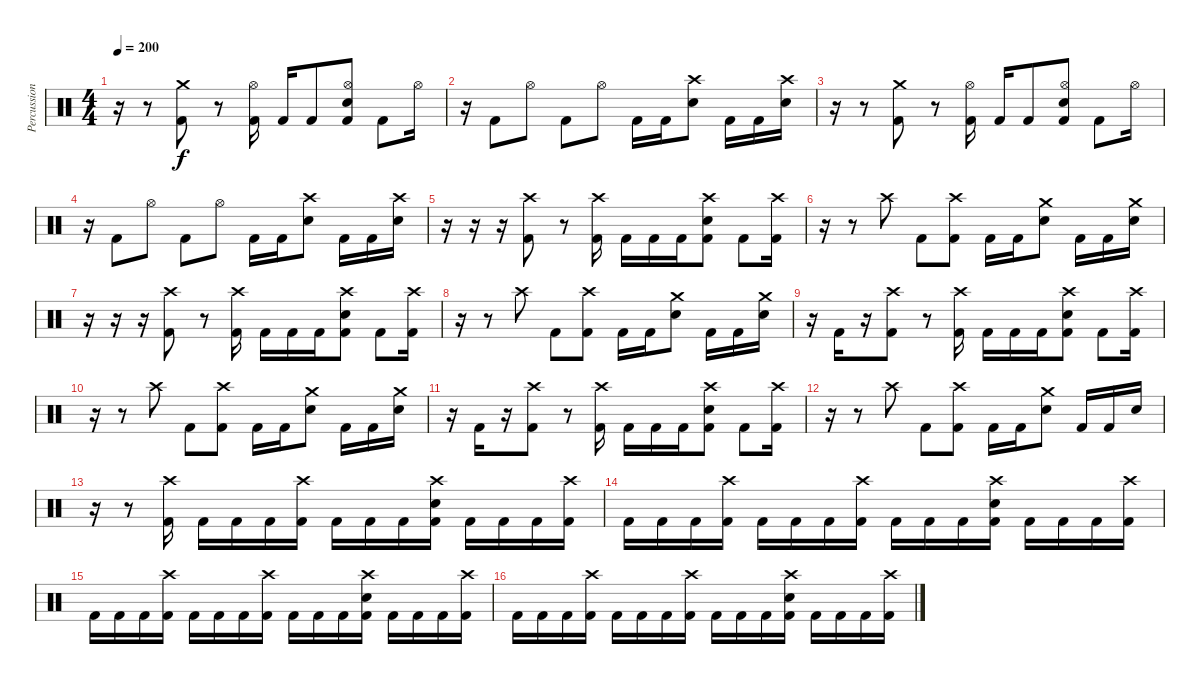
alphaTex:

\track ("Percussion" "Percussion") {instrument percussion}
\staff {score}
\articulation defaults
\ts (4 4)
\tempo 200
\clef neutral
\ks c
r.16{dy f} r.8 ("Crash medium (hit)" "Kick (hit) 2").8 r.8 ("Hi-Hat (open)" "Kick (hit) 2").16 "Kick (hit) 2".16 "Kick (hit) 2".8 ("Hi-Hat (open)" "Snare (hit) 2" "Kick (hit) 2").8 "Kick (hit) 2".8 "Hi-Hat (open)".16 |
r.16 "Kick (hit) 2".8 "Hi-Hat (open)".8 "Kick (hit) 2".8 "Hi-Hat (open)".8 "Kick (hit) 2".16 "Kick (hit) 2".16 ("Crash high (hit)" "Snare (hit) 2").8 "Kick (hit) 2".16 "Kick (hit) 2".16 ("Crash high (hit)" "Snare (hit) 2").16 |
r.16 r.8 ("Crash medium (hit)" "Kick (hit) 2").8 r.8 ("Hi-Hat (open)" "Kick (hit) 2").16 "Kick (hit) 2".16 "Kick (hit) 2".8 ("Hi-Hat (open)" "Snare (hit) 2" "Kick (hit) 2").8 "Kick (hit) 2".8 "Hi-Hat (open)".16 |
r.16 "Kick (hit) 2".8 "Hi-Hat (open)".8 "Kick (hit) 2".8 "Hi-Hat (open)".8 "Kick (hit) 2".16 "Kick (hit) 2".16 ("Crash high (hit)" "Snare (hit) 2").8 "Kick (hit) 2".16 "Kick (hit) 2".16 ("Crash high (hit)" "Snare (hit) 2").16 |
r.16 r.16 r.16 ("Crash high (hit)" "Kick (hit) 2").8 r.8 ("Crash high (hit)" "Kick (hit) 2").16 "Kick (hit) 2".16 "Kick (hit) 2".16 "Kick (hit) 2".16 ("Crash high (hit)" "Snare (hit) 2" "Kick (hit) 2").8 "Kick (hit) 2".8 ("Crash high (hit)" "Kick (hit) 2").16 |
r.16 r.8 "Crash high (hit)".8 "Kick (hit) 2".8 ("Crash high (hit)" "Kick (hit) 2").8 "Kick (hit) 2".16 "Kick (hit) 2".16 ("Crash medium (hit)" "Snare (hit) 2").8 "Kick (hit) 2".16 "Kick (hit) 2".16 ("Crash medium (hit)" "Snare (hit) 2").16 |
r.16 r.16 r.16 ("Crash high (hit)" "Kick (hit) 2").8 r.8 ("Crash high (hit)" "Kick (hit) 2").16 "Kick (hit) 2".16 "Kick (hit) 2".16 "Kick (hit) 2".16 ("Crash high (hit)" "Snare (hit) 2" "Kick (hit) 2").8 "Kick (hit) 2".8 ("Crash high (hit)" "Kick (hit) 2").16 |
r.16 r.8 "Crash high (hit)".8 "Kick (hit) 2".8 ("Crash high (hit)" "Kick (hit) 2").8 "Kick (hit) 2".16 "Kick (hit) 2".16 ("Crash medium (hit)" "Snare (hit) 2").8 "Kick (hit) 2".16 "Kick (hit) 2".16 ("Crash medium (hit)" "Snare (hit) 2").16 |
r.16 "Kick (hit) 2".16 r.16 ("Crash high (hit)" "Kick (hit) 2").8 r.8 ("Crash high (hit)" "Kick (hit) 2").16 "Kick (hit) 2".16 "Kick (hit) 2".16 "Kick (hit) 2".16 ("Crash high (hit)" "Snare (hit) 2" "Kick (hit) 2").8 "Kick (hit) 2".8 ("Crash high (hit)" "Kick (hit) 2").16 |
r.16 r.8 "Crash high (hit)".8 "Kick (hit) 2".8 ("Crash high (hit)" "Kick (hit) 2").8 "Kick (hit) 2".16 "Kick (hit) 2".16 ("Crash medium (hit)" "Snare (hit) 2").8 "Kick (hit) 2".16 "Kick (hit) 2".16 ("Crash medium (hit)" "Snare (hit) 2").16 |
r.16 "Kick (hit) 2".16 r.16 ("Crash high (hit)" "Kick (hit) 2").8 r.8 ("Crash high (hit)" "Kick (hit) 2").16 "Kick (hit) 2".16 "Kick (hit) 2".16 "Kick (hit) 2".16 ("Crash high (hit)" "Snare (hit) 2" "Kick (hit) 2").8 "Kick (hit) 2".8 ("Crash high (hit)" "Kick (hit) 2").16 |
r.16 r.8 "Crash high (hit)".8 "Kick (hit) 2".8 ("Crash high (hit)" "Kick (hit) 2").8 "Kick (hit) 2".16 "Kick (hit) 2".16 ("Crash medium (hit)" "Snare (hit) 2").8 "Kick (hit) 2".16 "Kick (hit) 2".16 "Snare (hit) 2".16 |
r.16 r.8 ("Crash high (hit)" "Kick (hit) 2").16 "Kick (hit) 2".16 "Kick (hit) 2".16 "Kick (hit) 2".16 ("Crash high (hit)" "Kick (hit) 2").16 "Kick (hit) 2".16 "Kick (hit) 2".16 "Kick (hit) 2".16 ("Crash high (hit)" "Snare (hit) 2" "Kick (hit) 2").16 "Kick (hit) 2".16 "Kick (hit) 2".16 "Kick (hit) 2".16 ("Crash high (hit)" "Kick (hit) 2").16 |
"Kick (hit) 2".16 "Kick (hit) 2".16 "Kick (hit) 2".16 ("Crash high (hit)" "Kick (hit) 2").16 "Kick (hit) 2".16 "Kick (hit) 2".16 "Kick (hit) 2".16 ("Crash high (hit)" "Kick (hit) 2").16 "Kick (hit) 2".16 "Kick (hit) 2".16 "Kick (hit) 2".16 ("Crash high (hit)" "Snare (hit) 2" "Kick (hit) 2").16 "Kick (hit) 2".16 "Kick (hit) 2".16 "Kick (hit) 2".16 ("Crash high (hit)" "Kick (hit) 2").16 |
"Kick (hit) 2".16 "Kick (hit) 2".16 "Kick (hit) 2".16 ("Crash high (hit)" "Kick (hit) 2").16 "Kick (hit) 2".16 "Kick (hit) 2".16 "Kick (hit) 2".16 ("Crash high (hit)" "Kick (hit) 2").16 "Kick (hit) 2".16 "Kick (hit) 2".16 "Kick (hit) 2".16 ("Crash high (hit)" "Snare (hit) 2" "Kick (hit) 2").16 "Kick (hit) 2".16 "Kick (hit) 2".16 "Kick (hit) 2".16 ("Crash high (hit)" "Kick (hit) 2").16 |
"Kick (hit) 2".16 "Kick (hit) 2".16 "Kick (hit) 2".16 ("Crash high (hit)" "Kick (hit) 2").16 "Kick (hit) 2".16 "Kick (hit) 2".16 "Kick (hit) 2".16 ("Crash high (hit)" "Kick (hit) 2").16 "Kick (hit) 2".16 "Kick (hit) 2".16 "Kick (hit) 2".16 ("Crash high (hit)" "Snare (hit) 2" "Kick (hit) 2").16 "Kick (hit) 2".16 "Kick (hit) 2".16 "Kick (hit) 2".16 ("Crash high (hit)" "Kick (hit) 2").16
